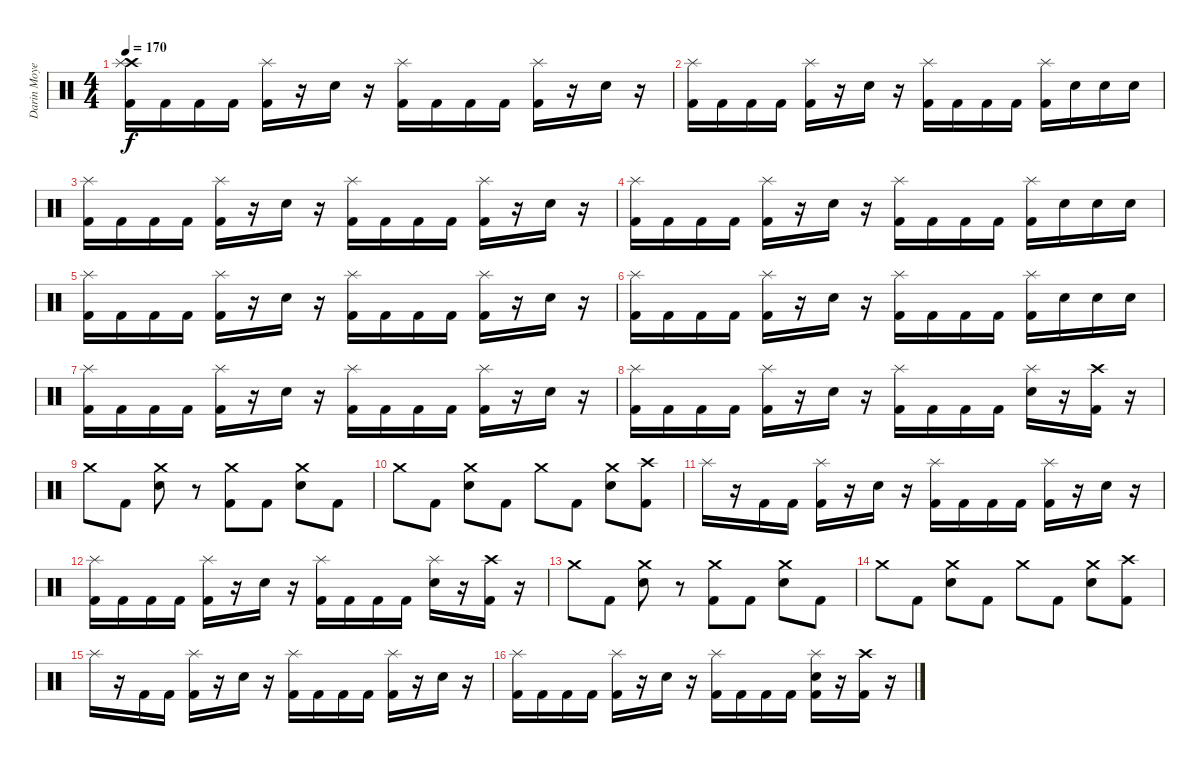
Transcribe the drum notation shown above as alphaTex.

\track ("Darin Moyen" "Darin Moye") {instrument percussion}
\staff {score}
\articulation defaults
\ts (4 4)
\tempo 170
\clef neutral
\ks c
("Crash high (hit)" "Splash (hit)" "Kick (hit) 2").16{dy f} "Kick (hit) 2".16 "Kick (hit) 2".16 "Kick (hit) 2".16 ("Splash (hit)" "Kick (hit) 2").16 r.16 "Electric Snare (hit)".16 r.16 ("Splash (hit)" "Kick (hit) 2").16 "Kick (hit) 2".16 "Kick (hit) 2".16 "Kick (hit) 2".16 ("Splash (hit)" "Kick (hit) 2").16 r.16 "Electric Snare (hit)".16 r.16 |
("Splash (hit)" "Kick (hit) 2").16 "Kick (hit) 2".16 "Kick (hit) 2".16 "Kick (hit) 2".16 ("Splash (hit)" "Kick (hit) 2").16 r.16 "Electric Snare (hit)".16 r.16 ("Splash (hit)" "Kick (hit) 2").16 "Kick (hit) 2".16 "Kick (hit) 2".16 "Kick (hit) 2".16 ("Splash (hit)" "Kick (hit) 2").16 "Electric Snare (hit)".16 "Electric Snare (hit)".16 "Electric Snare (hit)".16 |
("Splash (hit)" "Kick (hit) 2").16 "Kick (hit) 2".16 "Kick (hit) 2".16 "Kick (hit) 2".16 ("Splash (hit)" "Kick (hit) 2").16 r.16 "Electric Snare (hit)".16 r.16 ("Splash (hit)" "Kick (hit) 2").16 "Kick (hit) 2".16 "Kick (hit) 2".16 "Kick (hit) 2".16 ("Splash (hit)" "Kick (hit) 2").16 r.16 "Electric Snare (hit)".16 r.16 |
("Splash (hit)" "Kick (hit) 2").16 "Kick (hit) 2".16 "Kick (hit) 2".16 "Kick (hit) 2".16 ("Splash (hit)" "Kick (hit) 2").16 r.16 "Electric Snare (hit)".16 r.16 ("Splash (hit)" "Kick (hit) 2").16 "Kick (hit) 2".16 "Kick (hit) 2".16 "Kick (hit) 2".16 ("Splash (hit)" "Kick (hit) 2").16 "Electric Snare (hit)".16 "Electric Snare (hit)".16 "Electric Snare (hit)".16 |
("Splash (hit)" "Kick (hit) 2").16 "Kick (hit) 2".16 "Kick (hit) 2".16 "Kick (hit) 2".16 ("Splash (hit)" "Kick (hit) 2").16 r.16 "Electric Snare (hit)".16 r.16 ("Splash (hit)" "Kick (hit) 2").16 "Kick (hit) 2".16 "Kick (hit) 2".16 "Kick (hit) 2".16 ("Splash (hit)" "Kick (hit) 2").16 r.16 "Electric Snare (hit)".16 r.16 |
("Splash (hit)" "Kick (hit) 2").16 "Kick (hit) 2".16 "Kick (hit) 2".16 "Kick (hit) 2".16 ("Splash (hit)" "Kick (hit) 2").16 r.16 "Electric Snare (hit)".16 r.16 ("Splash (hit)" "Kick (hit) 2").16 "Kick (hit) 2".16 "Kick (hit) 2".16 "Kick (hit) 2".16 ("Splash (hit)" "Kick (hit) 2").16 "Electric Snare (hit)".16 "Electric Snare (hit)".16 "Electric Snare (hit)".16 |
("Splash (hit)" "Kick (hit) 2").16 "Kick (hit) 2".16 "Kick (hit) 2".16 "Kick (hit) 2".16 ("Splash (hit)" "Kick (hit) 2").16 r.16 "Electric Snare (hit)".16 r.16 ("Splash (hit)" "Kick (hit) 2").16 "Kick (hit) 2".16 "Kick (hit) 2".16 "Kick (hit) 2".16 ("Splash (hit)" "Kick (hit) 2").16 r.16 "Electric Snare (hit)".16 r.16 |
("Splash (hit)" "Kick (hit) 2").16 "Kick (hit) 2".16 "Kick (hit) 2".16 "Kick (hit) 2".16 ("Splash (hit)" "Kick (hit) 2").16 r.16 "Electric Snare (hit)".16 r.16 ("Splash (hit)" "Kick (hit) 2").16 "Kick (hit) 2".16 "Kick (hit) 2".16 "Kick (hit) 2".16 ("Splash (hit)" "Electric Snare (hit)").16 r.16 ("Crash high (hit)" "Kick (hit) 2").16 r.16 |
"Crash medium (hit)".8 "Kick (hit) 2".8 ("Crash medium (hit)" "Electric Snare (hit)").8 r.8 ("Crash medium (hit)" "Kick (hit) 2").8 "Kick (hit) 2".8 ("Crash medium (hit)" "Electric Snare (hit)").8 "Kick (hit) 2".8 |
"Crash medium (hit)".8 "Kick (hit) 2".8 ("Crash medium (hit)" "Electric Snare (hit)").8 "Kick (hit) 2".8 "Crash medium (hit)".8 "Kick (hit) 2".8 ("Crash medium (hit)" "Electric Snare (hit)").8 ("Crash high (hit)" "Kick (hit) 2").8 |
"Splash (hit)".16 r.16 "Kick (hit) 2".16 "Kick (hit) 2".16 ("Splash (hit)" "Kick (hit) 2").16 r.16 "Electric Snare (hit)".16 r.16 ("Splash (hit)" "Kick (hit) 2").16 "Kick (hit) 2".16 "Kick (hit) 2".16 "Kick (hit) 2".16 ("Splash (hit)" "Kick (hit) 2").16 r.16 "Electric Snare (hit)".16 r.16 |
("Splash (hit)" "Kick (hit) 2").16 "Kick (hit) 2".16 "Kick (hit) 2".16 "Kick (hit) 2".16 ("Splash (hit)" "Kick (hit) 2").16 r.16 "Electric Snare (hit)".16 r.16 ("Splash (hit)" "Kick (hit) 2").16 "Kick (hit) 2".16 "Kick (hit) 2".16 "Kick (hit) 2".16 ("Splash (hit)" "Electric Snare (hit)").16 r.16 ("Crash high (hit)" "Kick (hit) 2").16 r.16 |
"Crash medium (hit)".8 "Kick (hit) 2".8 ("Crash medium (hit)" "Electric Snare (hit)").8 r.8 ("Crash medium (hit)" "Kick (hit) 2").8 "Kick (hit) 2".8 ("Crash medium (hit)" "Electric Snare (hit)").8 "Kick (hit) 2".8 |
"Crash medium (hit)".8 "Kick (hit) 2".8 ("Crash medium (hit)" "Electric Snare (hit)").8 "Kick (hit) 2".8 "Crash medium (hit)".8 "Kick (hit) 2".8 ("Crash medium (hit)" "Electric Snare (hit)").8 ("Crash high (hit)" "Kick (hit) 2").8 |
"Splash (hit)".16 r.16 "Kick (hit) 2".16 "Kick (hit) 2".16 ("Splash (hit)" "Kick (hit) 2").16 r.16 "Electric Snare (hit)".16 r.16 ("Splash (hit)" "Kick (hit) 2").16 "Kick (hit) 2".16 "Kick (hit) 2".16 "Kick (hit) 2".16 ("Splash (hit)" "Kick (hit) 2").16 r.16 "Electric Snare (hit)".16 r.16 |
("Splash (hit)" "Kick (hit) 2").16 "Kick (hit) 2".16 "Kick (hit) 2".16 "Kick (hit) 2".16 ("Splash (hit)" "Kick (hit) 2").16 r.16 "Electric Snare (hit)".16 r.16 ("Splash (hit)" "Kick (hit) 2").16 "Kick (hit) 2".16 "Kick (hit) 2".16 "Kick (hit) 2".16 ("Splash (hit)" "Electric Snare (hit)" "Kick (hit) 2").16 r.16 ("Crash high (hit)" "Kick (hit) 2").16 r.16
